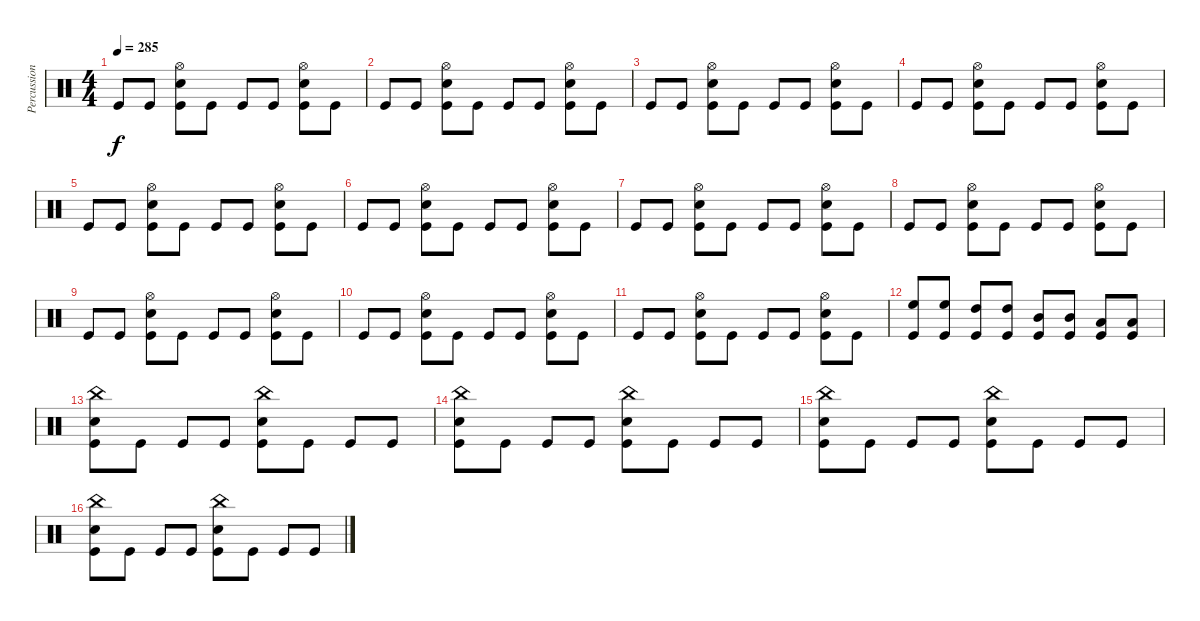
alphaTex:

\track ("Percussion" "Percussion") {instrument percussion}
\staff {score}
\articulation defaults
\ts (4 4)
\tempo 285
\clef neutral
\ks c "Kick (hit)".8{dy f} "Kick (hit)".8
("Snare (hit) 2" "Hi-Hat (open)" "Kick (hit)").8 "Kick (hit)".8 "Kick (hit)".8 "Kick (hit)".8 ("Snare (hit) 2" "Hi-Hat (open)" "Kick (hit)").8 "Kick (hit)".8 |
"Kick (hit)".8 "Kick (hit)".8 ("Snare (hit) 2" "Hi-Hat (open)" "Kick (hit)").8 "Kick (hit)".8 "Kick (hit)".8 "Kick (hit)".8 ("Snare (hit) 2" "Hi-Hat (open)" "Kick (hit)").8 "Kick (hit)".8 |
"Kick (hit)".8 "Kick (hit)".8 ("Snare (hit) 2" "Hi-Hat (open)" "Kick (hit)").8 "Kick (hit)".8 "Kick (hit)".8 "Kick (hit)".8 ("Snare (hit) 2" "Hi-Hat (open)" "Kick (hit)").8 "Kick (hit)".8 |
"Kick (hit)".8 "Kick (hit)".8 ("Snare (hit) 2" "Hi-Hat (open)" "Kick (hit)").8 "Kick (hit)".8 "Kick (hit)".8 "Kick (hit)".8 ("Snare (hit) 2" "Hi-Hat (open)" "Kick (hit)").8 "Kick (hit)".8 |
"Kick (hit)".8 "Kick (hit)".8 ("Snare (hit) 2" "Hi-Hat (open)" "Kick (hit)").8 "Kick (hit)".8 "Kick (hit)".8 "Kick (hit)".8 ("Snare (hit) 2" "Hi-Hat (open)" "Kick (hit)").8 "Kick (hit)".8 |
"Kick (hit)".8 "Kick (hit)".8 ("Snare (hit) 2" "Hi-Hat (open)" "Kick (hit)").8 "Kick (hit)".8 "Kick (hit)".8 "Kick (hit)".8 ("Snare (hit) 2" "Hi-Hat (open)" "Kick (hit)").8 "Kick (hit)".8 |
"Kick (hit)".8 "Kick (hit)".8 ("Snare (hit) 2" "Hi-Hat (open)" "Kick (hit)").8 "Kick (hit)".8 "Kick (hit)".8 "Kick (hit)".8 ("Snare (hit) 2" "Hi-Hat (open)" "Kick (hit)").8 "Kick (hit)".8 |
"Kick (hit)".8 "Kick (hit)".8 ("Snare (hit) 2" "Hi-Hat (open)" "Kick (hit)").8 "Kick (hit)".8 "Kick (hit)".8 "Kick (hit)".8 ("Snare (hit) 2" "Hi-Hat (open)" "Kick (hit)").8 "Kick (hit)".8 |
"Kick (hit)".8 "Kick (hit)".8 ("Snare (hit) 2" "Hi-Hat (open)" "Kick (hit)").8 "Kick (hit)".8 "Kick (hit)".8 "Kick (hit)".8 ("Snare (hit) 2" "Hi-Hat (open)" "Kick (hit)").8 "Kick (hit)".8 |
"Kick (hit)".8 "Kick (hit)".8 ("Snare (hit) 2" "Hi-Hat (open)" "Kick (hit)").8 "Kick (hit)".8 "Kick (hit)".8 "Kick (hit)".8 ("Snare (hit) 2" "Hi-Hat (open)" "Kick (hit)").8 "Kick (hit)".8 |
"Kick (hit)".8 "Kick (hit)".8 ("Snare (hit) 2" "Hi-Hat (open)" "Kick (hit)").8 "Kick (hit)".8 "Kick (hit)".8 "Kick (hit)".8 ("Snare (hit) 2" "Hi-Hat (open)" "Kick (hit)").8 "Kick (hit)".8 |
("High Floor Tom (hit)" "Kick (hit)").8 ("High Floor Tom (hit)" "Kick (hit)").8 ("High Tom (hit)" "Kick (hit)").8 ("High Tom (hit)" "Kick (hit)").8 ("Mid Tom (hit)" "Kick (hit)").8 ("Mid Tom (hit)" "Kick (hit)").8 ("Low Tom (hit)" "Kick (hit)").8 ("Low Tom (hit)" "Kick (hit)").8 |
("Snare (hit) 2" "China (hit)" "Kick (hit)").8 "Kick (hit)".8 "Kick (hit)".8 "Kick (hit)".8 ("Snare (hit) 2" "China (hit)" "Kick (hit)").8 "Kick (hit)".8 "Kick (hit)".8 "Kick (hit)".8 |
("Snare (hit) 2" "China (hit)" "Kick (hit)").8 "Kick (hit)".8 "Kick (hit)".8 "Kick (hit)".8 ("Snare (hit) 2" "China (hit)" "Kick (hit)").8 "Kick (hit)".8 "Kick (hit)".8 "Kick (hit)".8 |
("Snare (hit) 2" "China (hit)" "Kick (hit)").8 "Kick (hit)".8 "Kick (hit)".8 "Kick (hit)".8 ("Snare (hit) 2" "China (hit)" "Kick (hit)").8 "Kick (hit)".8 "Kick (hit)".8 "Kick (hit)".8 |
("Snare (hit) 2" "China (hit)" "Kick (hit)").8 "Kick (hit)".8 "Kick (hit)".8 "Kick (hit)".8 ("Snare (hit) 2" "China (hit)" "Kick (hit)").8 "Kick (hit)".8 "Kick (hit)".8 "Kick (hit)".8
